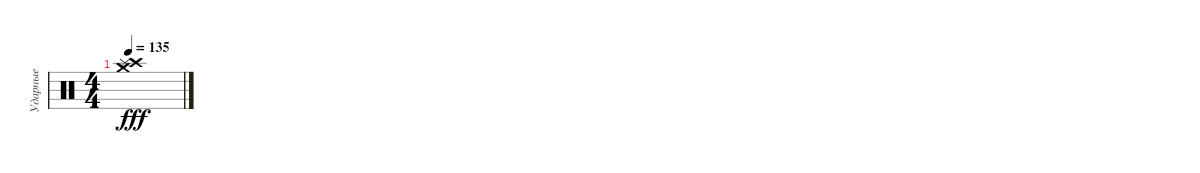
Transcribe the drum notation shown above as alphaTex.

\track ("Ударные" "Ударные") {instrument percussion}
\staff {score}
\articulation defaults
\ts (4 4)
\tempo 135
\clef neutral
\ks c
("Crash high (hit)" "Crash medium (hit)" "Splash (hit)").1{dy fff}
